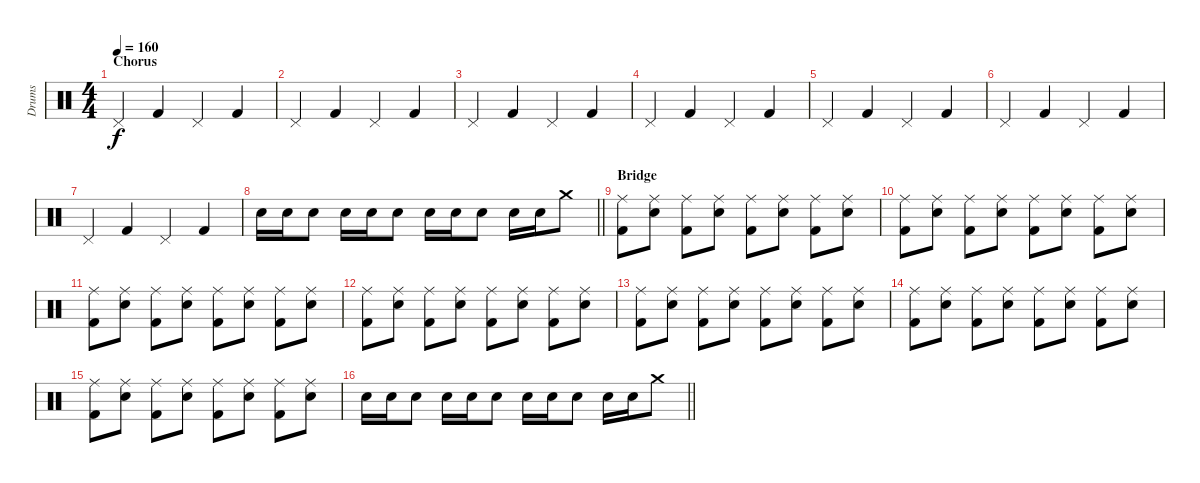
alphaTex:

\track ("Drums" "Drums") {instrument percussion}
\staff {score}
\articulation defaults
\ts (4 4)
\section ("" "Chorus")
\tempo 160
\clef neutral
\ks c "Pedal Hi-Hat (hit)".4{dy f} "Kick (hit) 2".4 "Pedal Hi-Hat (hit)".4 "Kick (hit) 2".4
|
"Pedal Hi-Hat (hit)".4 "Kick (hit) 2".4 "Pedal Hi-Hat (hit)".4 "Kick (hit) 2".4 |
"Pedal Hi-Hat (hit)".4 "Kick (hit) 2".4 "Pedal Hi-Hat (hit)".4 "Kick (hit) 2".4 |
"Pedal Hi-Hat (hit)".4 "Kick (hit) 2".4 "Pedal Hi-Hat (hit)".4 "Kick (hit) 2".4 |
"Pedal Hi-Hat (hit)".4 "Kick (hit) 2".4 "Pedal Hi-Hat (hit)".4 "Kick (hit) 2".4 |
"Pedal Hi-Hat (hit)".4 "Kick (hit) 2".4 "Pedal Hi-Hat (hit)".4 "Kick (hit) 2".4 |
"Pedal Hi-Hat (hit)".4 "Kick (hit) 2".4 "Pedal Hi-Hat (hit)".4 "Kick (hit) 2".4 |
\barLineRight lightlight "Electric Snare (hit)".16 "Electric Snare (hit)".16 "Electric Snare (hit)".8 "Electric Snare (hit)".16 "Electric Snare (hit)".16 "Electric Snare (hit)".8 "Electric Snare (hit)".16 "Electric Snare (hit)".16 "Electric Snare (hit)".8 "Electric Snare (hit)".16 "Electric Snare (hit)".16 "Crash medium (hit)".8
|
\section ("" "Bridge")
("Ride (middle)" "Kick (hit) 2").8 ("Ride (middle)" "Electric Snare (hit)").8 ("Ride (middle)" "Kick (hit) 2").8 ("Ride (middle)" "Electric Snare (hit)").8 ("Ride (middle)" "Kick (hit) 2").8 ("Ride (middle)" "Electric Snare (hit)").8 ("Ride (middle)" "Kick (hit) 2").8 ("Ride (middle)" "Electric Snare (hit)").8 |
("Ride (middle)" "Kick (hit) 2").8 ("Ride (middle)" "Electric Snare (hit)").8 ("Ride (middle)" "Kick (hit) 2").8 ("Ride (middle)" "Electric Snare (hit)").8 ("Ride (middle)" "Kick (hit) 2").8 ("Ride (middle)" "Electric Snare (hit)").8 ("Ride (middle)" "Kick (hit) 2").8 ("Ride (middle)" "Electric Snare (hit)").8 |
("Ride (middle)" "Kick (hit) 2").8 ("Ride (middle)" "Electric Snare (hit)").8 ("Ride (middle)" "Kick (hit) 2").8 ("Ride (middle)" "Electric Snare (hit)").8 ("Ride (middle)" "Kick (hit) 2").8 ("Ride (middle)" "Electric Snare (hit)").8 ("Ride (middle)" "Kick (hit) 2").8 ("Ride (middle)" "Electric Snare (hit)").8 |
("Ride (middle)" "Kick (hit) 2").8 ("Ride (middle)" "Electric Snare (hit)").8 ("Ride (middle)" "Kick (hit) 2").8 ("Ride (middle)" "Electric Snare (hit)").8 ("Ride (middle)" "Kick (hit) 2").8 ("Ride (middle)" "Electric Snare (hit)").8 ("Ride (middle)" "Kick (hit) 2").8 ("Ride (middle)" "Electric Snare (hit)").8 |
("Ride (middle)" "Kick (hit) 2").8 ("Ride (middle)" "Electric Snare (hit)").8 ("Ride (middle)" "Kick (hit) 2").8 ("Ride (middle)" "Electric Snare (hit)").8 ("Ride (middle)" "Kick (hit) 2").8 ("Ride (middle)" "Electric Snare (hit)").8 ("Ride (middle)" "Kick (hit) 2").8 ("Ride (middle)" "Electric Snare (hit)").8 |
("Ride (middle)" "Kick (hit) 2").8 ("Ride (middle)" "Electric Snare (hit)").8 ("Ride (middle)" "Kick (hit) 2").8 ("Ride (middle)" "Electric Snare (hit)").8 ("Ride (middle)" "Kick (hit) 2").8 ("Ride (middle)" "Electric Snare (hit)").8 ("Ride (middle)" "Kick (hit) 2").8 ("Ride (middle)" "Electric Snare (hit)").8 |
("Ride (middle)" "Kick (hit) 2").8 ("Ride (middle)" "Electric Snare (hit)").8 ("Ride (middle)" "Kick (hit) 2").8 ("Ride (middle)" "Electric Snare (hit)").8 ("Ride (middle)" "Kick (hit) 2").8 ("Ride (middle)" "Electric Snare (hit)").8 ("Ride (middle)" "Kick (hit) 2").8 ("Ride (middle)" "Electric Snare (hit)").8 |
\barLineRight lightlight "Electric Snare (hit)".16 "Electric Snare (hit)".16 "Electric Snare (hit)".8 "Electric Snare (hit)".16 "Electric Snare (hit)".16 "Electric Snare (hit)".8 "Electric Snare (hit)".16 "Electric Snare (hit)".16 "Electric Snare (hit)".8 "Electric Snare (hit)".16 "Electric Snare (hit)".16 "Crash medium (hit)".8
